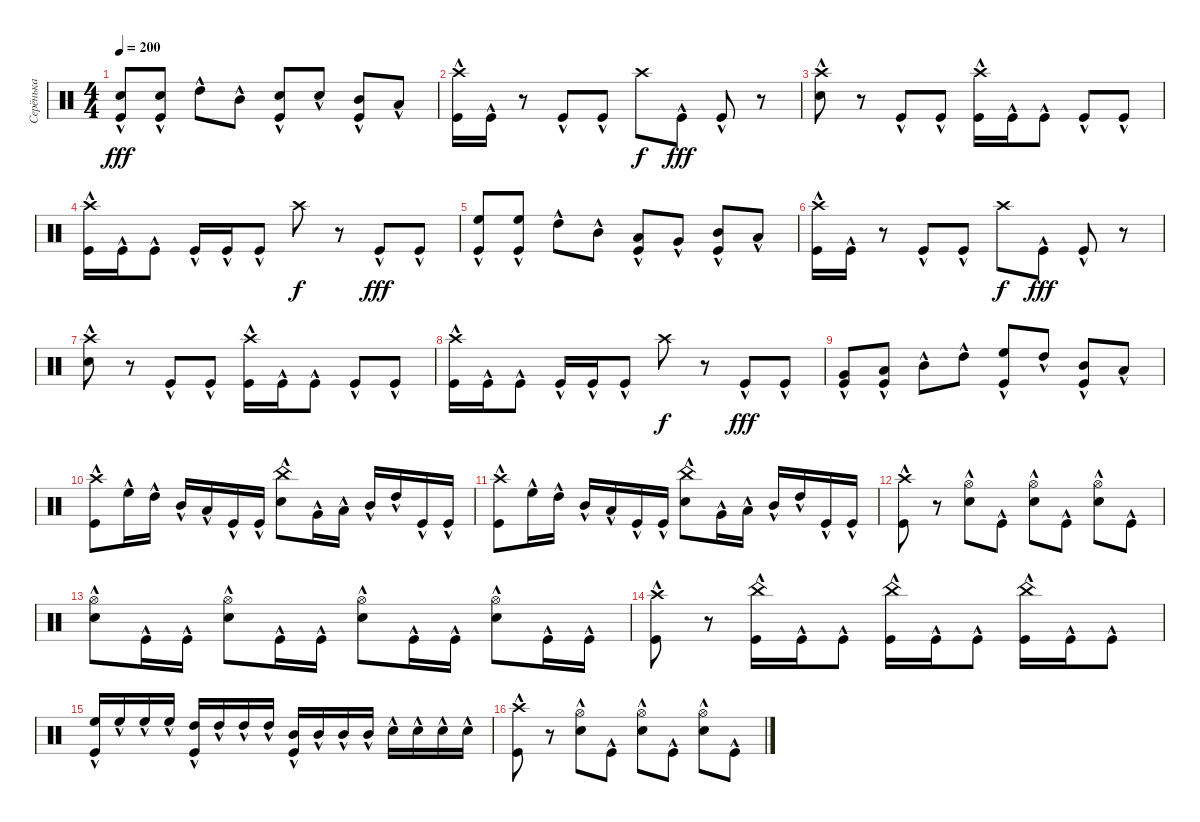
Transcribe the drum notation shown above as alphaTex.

\track ("Серёнька" "Серёнька") {instrument percussion}
\staff {score}
\articulation defaults
\ts (4 4)
\tempo 200
\clef neutral
\ks c
("Snare (hit) 2"{hac} "Kick (hit)"{hac}).8{dy fff} ("Snare (hit) 2"{hac} "Kick (hit)"{hac}).8 "High Tom (hit)"{hac}.8 "Mid Tom (hit)"{hac}.8 ("Snare (hit) 2"{hac} "Kick (hit)"{hac}).8 "Snare (hit) 2"{hac}.8 ("Mid Tom (hit)"{hac} "Kick (hit)"{hac}).8 "Low Tom (hit)"{hac}.8 |
("Crash high (hit)" "Kick (hit)"{hac}).16 "Kick (hit)"{hac}.16 r.8 "Kick (hit)"{hac}.8 "Kick (hit)"{hac}.8 "Crash high (hit)".8{dy f} "Kick (hit)"{hac}.8{dy fff} "Kick (hit)"{hac}.8 r.8 |
("Crash high (hit)" "Snare (hit) 2"{hac}).8 r.8 "Kick (hit)"{hac}.8 "Kick (hit)"{hac}.8 ("Crash high (hit)" "Kick (hit)"{hac}).16 "Kick (hit)"{hac}.16 "Kick (hit)"{hac}.8 "Kick (hit)"{hac}.8 "Kick (hit)"{hac}.8 |
("Crash high (hit)" "Kick (hit)"{hac}).16 "Kick (hit)"{hac}.16 "Kick (hit)"{hac}.8 "Kick (hit)"{hac}.16 "Kick (hit)"{hac}.16 "Kick (hit)"{hac}.8 "Crash high (hit)".8{dy f} r.8 "Kick (hit)"{hac}.8{dy fff} "Kick (hit)"{hac}.8 |
("High Floor Tom (hit)"{hac} "Kick (hit)"{hac}).8 ("High Floor Tom (hit)"{hac} "Kick (hit)"{hac}).8 "High Tom (hit)"{hac}.8 "Mid Tom (hit)"{hac}.8 ("Low Tom (hit)"{hac} "Kick (hit)"{hac}).8 "Very Low Tom (hit)"{hac}.8 ("Mid Tom (hit)"{hac} "Kick (hit)"{hac}).8 "Low Tom (hit)"{hac}.8 |
("Crash high (hit)" "Kick (hit)"{hac}).16 "Kick (hit)"{hac}.16 r.8 "Kick (hit)"{hac}.8 "Kick (hit)"{hac}.8 "Crash high (hit)".8{dy f} "Kick (hit)"{hac}.8{dy fff} "Kick (hit)"{hac}.8 r.8 |
("Crash high (hit)" "Snare (hit) 2"{hac}).8 r.8 "Kick (hit)"{hac}.8 "Kick (hit)"{hac}.8 ("Crash high (hit)" "Kick (hit)"{hac}).16 "Kick (hit)"{hac}.16 "Kick (hit)"{hac}.8 "Kick (hit)"{hac}.8 "Kick (hit)"{hac}.8 |
("Crash high (hit)" "Kick (hit)"{hac}).16 "Kick (hit)"{hac}.16 "Kick (hit)"{hac}.8 "Kick (hit)"{hac}.16 "Kick (hit)"{hac}.16 "Kick (hit)"{hac}.8 "Crash high (hit)".8{dy f} r.8 "Kick (hit)"{hac}.8{dy fff} "Kick (hit)"{hac}.8 |
("Very Low Tom (hit)"{hac} "Kick (hit)"{hac}).8 ("Low Tom (hit)"{hac} "Kick (hit)"{hac}).8 "Mid Tom (hit)"{hac}.8 "High Tom (hit)"{hac}.8 ("High Floor Tom (hit)"{hac} "Kick (hit)"{hac}).8 "High Tom (hit)"{hac}.8 ("Mid Tom (hit)"{hac} "Kick (hit)"{hac}).8 "Low Tom (hit)"{hac}.8 |
("Crash high (hit)" "Kick (hit)"{hac}).8 "High Floor Tom (hit)"{hac}.16 "High Tom (hit)"{hac}.16 "Mid Tom (hit)"{hac}.16 "Low Tom (hit)"{hac}.16 "Kick (hit)"{hac}.16 "Kick (hit)"{hac}.16 ("China (hit)" "Snare (hit) 2"{hac}).8 "Very Low Tom (hit)"{hac}.16 "Low Tom (hit)"{hac}.16 "Mid Tom (hit)"{hac}.16 "High Tom (hit)"{hac}.16 "Kick (hit)"{hac}.16 "Kick (hit)"{hac}.16 |
("Crash high (hit)" "Kick (hit)"{hac}).8 "High Floor Tom (hit)"{hac}.16 "High Tom (hit)"{hac}.16 "Mid Tom (hit)"{hac}.16 "Low Tom (hit)"{hac}.16 "Kick (hit)"{hac}.16 "Kick (hit)"{hac}.16 ("China (hit)" "Snare (hit) 2"{hac}).8 "Very Low Tom (hit)"{hac}.16 "Low Tom (hit)"{hac}.16 "Mid Tom (hit)"{hac}.16 "High Tom (hit)"{hac}.16 "Kick (hit)"{hac}.16 "Kick (hit)"{hac}.16 |
("Crash high (hit)" "Kick (hit)"{hac}).8 r.8 ("Hi-Hat (open)" "Snare (hit) 2"{hac}).8 "Kick (hit)"{hac}.8 ("Hi-Hat (open)" "Snare (hit) 2"{hac}).8 "Kick (hit)"{hac}.8 ("Hi-Hat (open)" "Snare (hit) 2"{hac}).8 "Kick (hit)"{hac}.8 |
("Hi-Hat (open)" "Snare (hit) 2"{hac}).8 "Kick (hit)"{hac}.16 "Kick (hit)"{hac}.16 ("Hi-Hat (open)" "Snare (hit) 2"{hac}).8 "Kick (hit)"{hac}.16 "Kick (hit)"{hac}.16 ("Hi-Hat (open)" "Snare (hit) 2"{hac}).8 "Kick (hit)"{hac}.16 "Kick (hit)"{hac}.16 ("Hi-Hat (open)" "Snare (hit) 2"{hac}).8 "Kick (hit)"{hac}.16 "Kick (hit)"{hac}.16 |
("Crash high (hit)" "Kick (hit)"{hac}).8 r.8 ("China (hit)" "Kick (hit)"{hac}).16 "Kick (hit)"{hac}.16 "Kick (hit)"{hac}.8 ("China (hit)" "Kick (hit)"{hac}).16 "Kick (hit)"{hac}.16 "Kick (hit)"{hac}.8 ("China (hit)" "Kick (hit)"{hac}).16 "Kick (hit)"{hac}.16 "Kick (hit)"{hac}.8 |
("Kick (hit)"{hac} "High Floor Tom (hit)"{hac}).16 "High Floor Tom (hit)"{hac}.16 "High Floor Tom (hit)"{hac}.16 "High Floor Tom (hit)"{hac}.16 ("Kick (hit)"{hac} "High Tom (hit)"{hac}).16 "High Tom (hit)"{hac}.16 "High Tom (hit)"{hac}.16 "High Tom (hit)"{hac}.16 ("Kick (hit)"{hac} "Mid Tom (hit)"{hac}).16 "Mid Tom (hit)"{hac}.16 "Mid Tom (hit)"{hac}.16 "Mid Tom (hit)"{hac}.16 "Snare (hit) 2"{hac}.16 "Snare (hit) 2"{hac}.16 "Snare (hit) 2"{hac}.16 "Snare (hit) 2"{hac}.16 |
("Crash high (hit)" "Kick (hit)"{hac}).8 r.8 ("Hi-Hat (open)" "Snare (hit) 2"{hac}).8 "Kick (hit)"{hac}.8 ("Hi-Hat (open)" "Snare (hit) 2"{hac}).8 "Kick (hit)"{hac}.8 ("Hi-Hat (open)" "Snare (hit) 2"{hac}).8 "Kick (hit)"{hac}.8
